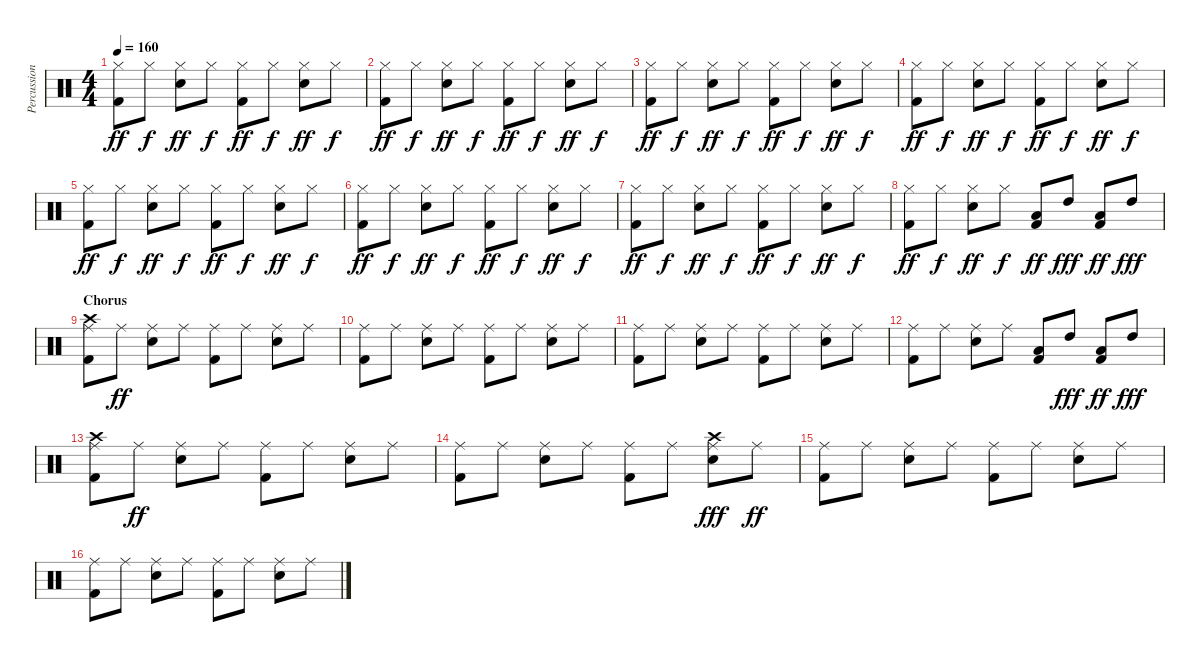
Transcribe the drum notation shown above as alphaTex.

\track ("Percussion" "Percussion") {instrument percussion}
\staff {score}
\articulation defaults
\ts (4 4)
\tempo 160
\clef neutral
\ks c
("Hi-Hat (closed)" "Kick (hit) 2").8{dy ff} "Hi-Hat (closed)".8{dy f} ("Hi-Hat (closed)" "Snare (hit) 2").8{dy ff} "Hi-Hat (closed)".8{dy f} ("Hi-Hat (closed)" "Kick (hit) 2").8{dy ff} "Hi-Hat (closed)".8{dy f} ("Hi-Hat (closed)" "Snare (hit) 2").8{dy ff} "Hi-Hat (closed)".8{dy f} |
("Hi-Hat (closed)" "Kick (hit) 2").8{dy ff} "Hi-Hat (closed)".8{dy f} ("Hi-Hat (closed)" "Snare (hit) 2").8{dy ff} "Hi-Hat (closed)".8{dy f} ("Hi-Hat (closed)" "Kick (hit) 2").8{dy ff} "Hi-Hat (closed)".8{dy f} ("Hi-Hat (closed)" "Snare (hit) 2").8{dy ff} "Hi-Hat (closed)".8{dy f} |
("Hi-Hat (closed)" "Kick (hit) 2").8{dy ff} "Hi-Hat (closed)".8{dy f} ("Hi-Hat (closed)" "Snare (hit) 2").8{dy ff} "Hi-Hat (closed)".8{dy f} ("Hi-Hat (closed)" "Kick (hit) 2").8{dy ff} "Hi-Hat (closed)".8{dy f} ("Hi-Hat (closed)" "Snare (hit) 2").8{dy ff} "Hi-Hat (closed)".8{dy f} |
("Hi-Hat (closed)" "Kick (hit) 2").8{dy ff} "Hi-Hat (closed)".8{dy f} ("Hi-Hat (closed)" "Snare (hit) 2").8{dy ff} "Hi-Hat (closed)".8{dy f} ("Hi-Hat (closed)" "Kick (hit) 2").8{dy ff} "Hi-Hat (closed)".8{dy f} ("Hi-Hat (closed)" "Snare (hit) 2").8{dy ff} "Hi-Hat (closed)".8{dy f} |
("Hi-Hat (closed)" "Kick (hit) 2").8{dy ff} "Hi-Hat (closed)".8{dy f} ("Hi-Hat (closed)" "Snare (hit) 2").8{dy ff} "Hi-Hat (closed)".8{dy f} ("Hi-Hat (closed)" "Kick (hit) 2").8{dy ff} "Hi-Hat (closed)".8{dy f} ("Hi-Hat (closed)" "Snare (hit) 2").8{dy ff} "Hi-Hat (closed)".8{dy f} |
("Hi-Hat (closed)" "Kick (hit) 2").8{dy ff} "Hi-Hat (closed)".8{dy f} ("Hi-Hat (closed)" "Snare (hit) 2").8{dy ff} "Hi-Hat (closed)".8{dy f} ("Hi-Hat (closed)" "Kick (hit) 2").8{dy ff} "Hi-Hat (closed)".8{dy f} ("Hi-Hat (closed)" "Snare (hit) 2").8{dy ff} "Hi-Hat (closed)".8{dy f} |
("Hi-Hat (closed)" "Kick (hit) 2").8{dy ff} "Hi-Hat (closed)".8{dy f} ("Hi-Hat (closed)" "Snare (hit) 2").8{dy ff} "Hi-Hat (closed)".8{dy f} ("Hi-Hat (closed)" "Kick (hit) 2").8{dy ff} "Hi-Hat (closed)".8{dy f} ("Hi-Hat (closed)" "Snare (hit) 2").8{dy ff} "Hi-Hat (closed)".8{dy f} |
("Hi-Hat (closed)" "Kick (hit) 2").8{dy ff} "Hi-Hat (closed)".8{dy f} ("Hi-Hat (closed)" "Snare (hit) 2").8{dy ff} "Hi-Hat (closed)".8{dy f} ("Low Floor Tom (hit)" "Kick (hit) 2").8{dy ff} "High Tom (hit)".8{dy fff} ("Low Floor Tom (hit)" "Kick (hit) 2").8{dy ff} "High Tom (hit)".8{dy fff} |
\section ("" "Chorus")
("Ride (middle)" "Kick (hit) 2" "Crash high (hit)").8 "Ride (middle)".8{dy ff} ("Ride (middle)" "Snare (hit) 2").8 "Ride (middle)".8 ("Ride (middle)" "Kick (hit) 2").8 "Ride (middle)".8 ("Ride (middle)" "Snare (hit) 2").8 "Ride (middle)".8 |
("Ride (middle)" "Kick (hit) 2").8 "Ride (middle)".8 ("Ride (middle)" "Snare (hit) 2").8 "Ride (middle)".8 ("Ride (middle)" "Kick (hit) 2").8 "Ride (middle)".8 ("Ride (middle)" "Snare (hit) 2").8 "Ride (middle)".8 |
("Ride (middle)" "Kick (hit) 2").8 "Ride (middle)".8 ("Ride (middle)" "Snare (hit) 2").8 "Ride (middle)".8 ("Ride (middle)" "Kick (hit) 2").8 "Ride (middle)".8 ("Ride (middle)" "Snare (hit) 2").8 "Ride (middle)".8 |
("Ride (middle)" "Kick (hit) 2").8 "Ride (middle)".8 ("Ride (middle)" "Snare (hit) 2").8 "Ride (middle)".8 ("Low Floor Tom (hit)" "Kick (hit) 2").8 "High Tom (hit)".8{dy fff} ("Low Floor Tom (hit)" "Kick (hit) 2").8{dy ff} "High Tom (hit)".8{dy fff} |
("Ride (middle)" "Kick (hit) 2" "Crash high (hit)").8 "Ride (middle)".8{dy ff} ("Ride (middle)" "Snare (hit) 2").8 "Ride (middle)".8 ("Ride (middle)" "Kick (hit) 2").8 "Ride (middle)".8 ("Ride (middle)" "Snare (hit) 2").8 "Ride (middle)".8 |
("Ride (middle)" "Kick (hit) 2").8 "Ride (middle)".8 ("Ride (middle)" "Snare (hit) 2").8 "Ride (middle)".8 ("Ride (middle)" "Kick (hit) 2").8 "Ride (middle)".8 ("Ride (middle)" "Snare (hit) 2" "Crash high (hit)").8{dy fff} "Ride (middle)".8{dy ff} |
("Ride (middle)" "Kick (hit) 2").8 "Ride (middle)".8 ("Ride (middle)" "Snare (hit) 2").8 "Ride (middle)".8 ("Ride (middle)" "Kick (hit) 2").8 "Ride (middle)".8 ("Ride (middle)" "Snare (hit) 2").8 "Ride (middle)".8 |
("Ride (middle)" "Kick (hit) 2").8 "Ride (middle)".8 ("Ride (middle)" "Snare (hit) 2").8 "Ride (middle)".8 ("Ride (middle)" "Kick (hit) 2").8 "Ride (middle)".8 ("Ride (middle)" "Snare (hit) 2").8 "Ride (middle)".8
